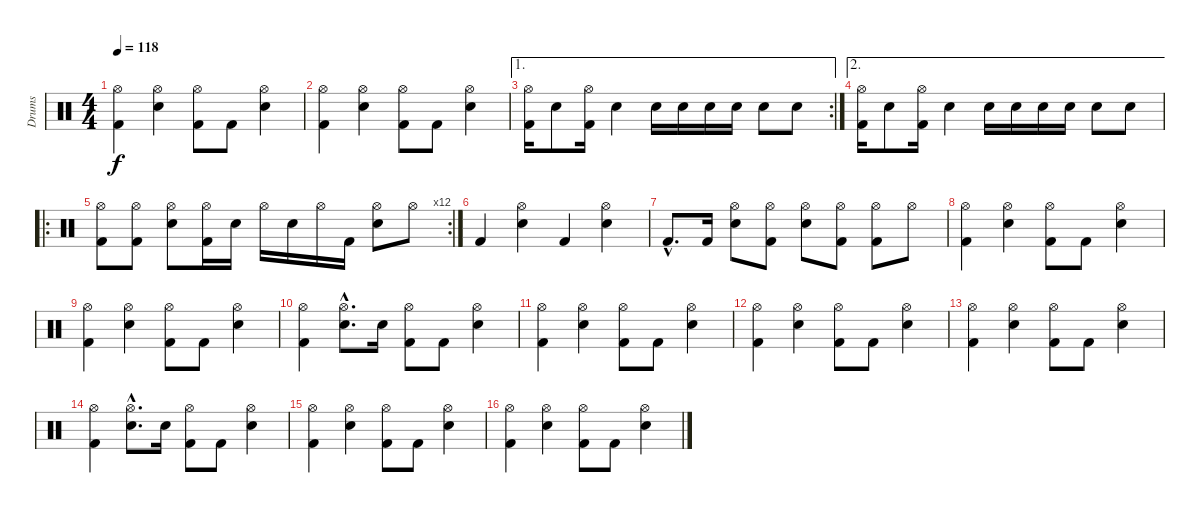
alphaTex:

\track ("Drums" "Drums") {instrument percussion}
\staff {score}
\articulation defaults
\ts (4 4)
\tempo 118
\clef neutral
\ks c
("Hi-Hat (open)" "Kick (hit) 2").4{dy f} ("Hi-Hat (open)" "Electric Snare (hit)").4 ("Hi-Hat (open)" "Kick (hit) 2").8 "Kick (hit) 2".8 ("Hi-Hat (open)" "Electric Snare (hit)").4 |
("Hi-Hat (open)" "Kick (hit) 2").4 ("Hi-Hat (open)" "Electric Snare (hit)").4 ("Hi-Hat (open)" "Kick (hit) 2").8 "Kick (hit) 2".8 ("Hi-Hat (open)" "Electric Snare (hit)").4 |
\ae 1
\rc 2
("Hi-Hat (open)" "Kick (hit) 2").16 "Electric Snare (hit)".8 ("Hi-Hat (open)" "Kick (hit) 2").16 "Electric Snare (hit)".4 "Electric Snare (hit)".16 "Electric Snare (hit)".16 "Electric Snare (hit)".16 "Electric Snare (hit)".16 "Electric Snare (hit)".8 "Electric Snare (hit)".8 |
\ae 2
("Hi-Hat (open)" "Kick (hit) 2").16 "Electric Snare (hit)".8 ("Hi-Hat (open)" "Kick (hit) 2").16 "Electric Snare (hit)".4 "Electric Snare (hit)".16 "Electric Snare (hit)".16 "Electric Snare (hit)".16 "Electric Snare (hit)".16 "Electric Snare (hit)".8 "Electric Snare (hit)".8 |
\ro
\rc 12
("Hi-Hat (open)" "Kick (hit) 2").8 ("Hi-Hat (open)" "Kick (hit) 2").8 ("Hi-Hat (open)" "Electric Snare (hit)").8 ("Hi-Hat (open)" "Kick (hit) 2").16 "Electric Snare (hit)".16 "Hi-Hat (open)".16 "Electric Snare (hit)".16 "Hi-Hat (open)".16 "Kick (hit) 2".16 ("Hi-Hat (open)" "Electric Snare (hit)").8 "Hi-Hat (open)".8 |
"Kick (hit) 2".4 ("Hi-Hat (open)" "Electric Snare (hit)").4 "Kick (hit) 2".4 ("Hi-Hat (open)" "Electric Snare (hit)").4 |
"Kick (hit) 2"{hac}.8{d} "Kick (hit) 2".16 ("Hi-Hat (open)" "Electric Snare (hit)").8 ("Hi-Hat (open)" "Kick (hit) 2").8 ("Hi-Hat (open)" "Electric Snare (hit)").8 ("Hi-Hat (open)" "Kick (hit) 2").8 ("Hi-Hat (open)" "Kick (hit) 2").8 "Hi-Hat (open)".8 |
("Hi-Hat (open)" "Kick (hit) 2").4 ("Hi-Hat (open)" "Electric Snare (hit)").4 ("Hi-Hat (open)" "Kick (hit) 2").8 "Kick (hit) 2".8 ("Hi-Hat (open)" "Electric Snare (hit)").4 |
("Hi-Hat (open)" "Kick (hit) 2").4 ("Hi-Hat (open)" "Electric Snare (hit)").4 ("Hi-Hat (open)" "Kick (hit) 2").8 "Kick (hit) 2".8 ("Hi-Hat (open)" "Electric Snare (hit)").4 |
("Hi-Hat (open)" "Kick (hit) 2").4 ("Hi-Hat (open)"{hac} "Electric Snare (hit)"{hac}).8{d} "Electric Snare (hit)".16 ("Hi-Hat (open)" "Kick (hit) 2").8 "Kick (hit) 2".8 ("Hi-Hat (open)" "Electric Snare (hit)").4 |
("Hi-Hat (open)" "Kick (hit) 2").4 ("Hi-Hat (open)" "Electric Snare (hit)").4 ("Hi-Hat (open)" "Kick (hit) 2").8 "Kick (hit) 2".8 ("Hi-Hat (open)" "Electric Snare (hit)").4 |
("Hi-Hat (open)" "Kick (hit) 2").4 ("Hi-Hat (open)" "Electric Snare (hit)").4 ("Hi-Hat (open)" "Kick (hit) 2").8 "Kick (hit) 2".8 ("Hi-Hat (open)" "Electric Snare (hit)").4 |
("Hi-Hat (open)" "Kick (hit) 2").4 ("Hi-Hat (open)" "Electric Snare (hit)").4 ("Hi-Hat (open)" "Kick (hit) 2").8 "Kick (hit) 2".8 ("Hi-Hat (open)" "Electric Snare (hit)").4 |
("Hi-Hat (open)" "Kick (hit) 2").4 ("Hi-Hat (open)"{hac} "Electric Snare (hit)"{hac}).8{d} "Electric Snare (hit)".16 ("Hi-Hat (open)" "Kick (hit) 2").8 "Kick (hit) 2".8 ("Hi-Hat (open)" "Electric Snare (hit)").4 |
("Hi-Hat (open)" "Kick (hit) 2").4 ("Hi-Hat (open)" "Electric Snare (hit)").4 ("Hi-Hat (open)" "Kick (hit) 2").8 "Kick (hit) 2".8 ("Hi-Hat (open)" "Electric Snare (hit)").4 |
("Hi-Hat (open)" "Kick (hit) 2").4 ("Hi-Hat (open)" "Electric Snare (hit)").4 ("Hi-Hat (open)" "Kick (hit) 2").8 "Kick (hit) 2".8 ("Hi-Hat (open)" "Electric Snare (hit)").4
